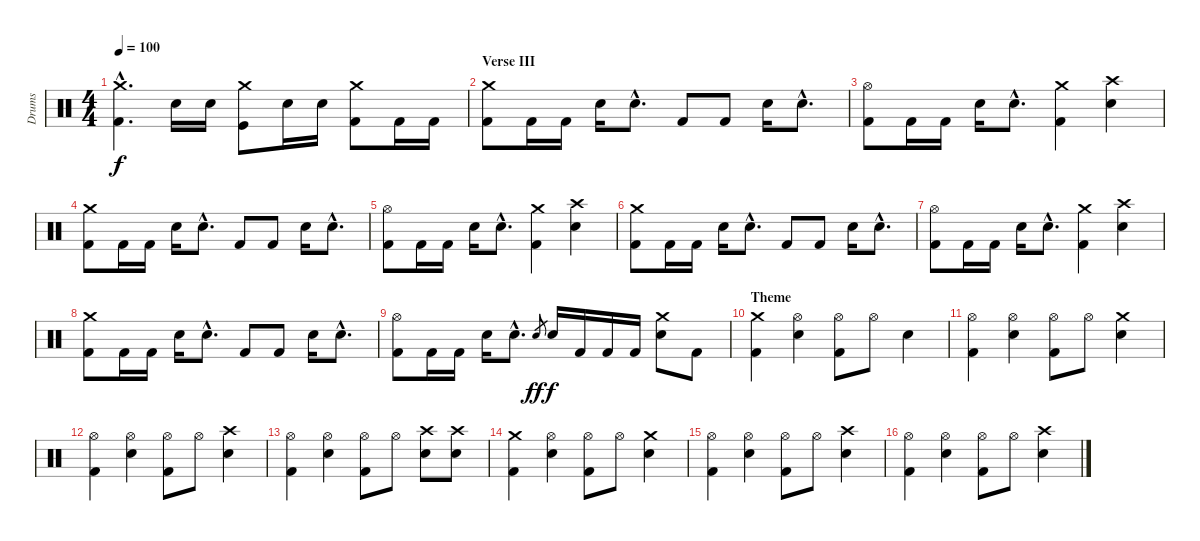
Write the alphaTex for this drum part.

\track ("Drums" "Drums") {instrument percussion}
\staff {score}
\articulation defaults
\ts (4 4)
\tempo 100
\clef neutral
\ks c
("Crash medium (hit)"{hac} "Kick (hit) 2"{hac}).4{d dy f} "Snare (hit) 2".16 "Snare (hit) 2".16 ("Crash medium (hit)" "Kick (hit)").8 "Snare (hit) 2".16 "Snare (hit) 2".16 ("Crash medium (hit)" "Kick (hit) 2").8 "Kick (hit) 2".16 "Kick (hit) 2".16 |
\section ("" "Verse III")
("Crash medium (hit)" "Kick (hit) 2").8 "Kick (hit) 2".16 "Kick (hit) 2".16 "Snare (hit) 2".16 "Snare (hit) 2"{hac}.8{d} "Kick (hit) 2".8 "Kick (hit) 2".8 "Snare (hit) 2".16 "Snare (hit) 2"{hac}.8{d} |
("Hi-Hat (open)" "Kick (hit) 2").8 "Kick (hit) 2".16 "Kick (hit) 2".16 "Snare (hit) 2".16 "Snare (hit) 2"{hac}.8{d} ("Crash medium (hit)" "Kick (hit) 2").4 ("Crash high (hit)" "Snare (hit) 2").4 |
("Crash medium (hit)" "Kick (hit) 2").8 "Kick (hit) 2".16 "Kick (hit) 2".16 "Snare (hit) 2".16 "Snare (hit) 2"{hac}.8{d} "Kick (hit) 2".8 "Kick (hit) 2".8 "Snare (hit) 2".16 "Snare (hit) 2"{hac}.8{d} |
("Hi-Hat (open)" "Kick (hit) 2").8 "Kick (hit) 2".16 "Kick (hit) 2".16 "Snare (hit) 2".16 "Snare (hit) 2"{hac}.8{d} ("Crash medium (hit)" "Kick (hit) 2").4 ("Crash high (hit)" "Snare (hit) 2").4 |
("Crash medium (hit)" "Kick (hit) 2").8 "Kick (hit) 2".16 "Kick (hit) 2".16 "Snare (hit) 2".16 "Snare (hit) 2"{hac}.8{d} "Kick (hit) 2".8 "Kick (hit) 2".8 "Snare (hit) 2".16 "Snare (hit) 2"{hac}.8{d} |
("Hi-Hat (open)" "Kick (hit) 2").8 "Kick (hit) 2".16 "Kick (hit) 2".16 "Snare (hit) 2".16 "Snare (hit) 2"{hac}.8{d} ("Crash medium (hit)" "Kick (hit) 2").4 ("Crash high (hit)" "Snare (hit) 2").4 |
("Crash medium (hit)" "Kick (hit) 2").8 "Kick (hit) 2".16 "Kick (hit) 2".16 "Snare (hit) 2".16 "Snare (hit) 2"{hac}.8{d} "Kick (hit) 2".8 "Kick (hit) 2".8 "Snare (hit) 2".16 "Snare (hit) 2"{hac}.8{d} |
("Hi-Hat (open)" "Kick (hit) 2").8 "Kick (hit) 2".16 "Kick (hit) 2".16 "Snare (hit) 2".16 "Snare (hit) 2"{hac}.8{d} "Snare (hit) 2".8{gr dy ff} "Snare (hit) 2".16{dy f} "Kick (hit) 2".16 "Kick (hit) 2".16 "Kick (hit) 2".16 ("Crash medium (hit)" "Snare (hit) 2").8 "Kick (hit) 2".8 |
\section ("" "Theme")
("Crash medium (hit)" "Kick (hit) 2").4 ("Hi-Hat (open)" "Snare (hit) 2").4 ("Hi-Hat (open)" "Kick (hit) 2").8 "Hi-Hat (open)".8 "Snare (hit) 2".4 |
("Hi-Hat (open)" "Kick (hit) 2").4 ("Hi-Hat (open)" "Snare (hit) 2").4 ("Hi-Hat (open)" "Kick (hit) 2").8 "Hi-Hat (open)".8 ("Crash medium (hit)" "Snare (hit) 2").4 |
("Hi-Hat (open)" "Kick (hit) 2").4 ("Hi-Hat (open)" "Snare (hit) 2").4 ("Hi-Hat (open)" "Kick (hit) 2").8 "Hi-Hat (open)".8 ("Crash high (hit)" "Snare (hit) 2").4 |
("Hi-Hat (open)" "Kick (hit) 2").4 ("Hi-Hat (open)" "Snare (hit) 2").4 ("Hi-Hat (open)" "Kick (hit) 2").8 "Hi-Hat (open)".8 ("Crash high (hit)" "Snare (hit) 2").8 ("Crash high (hit)" "Snare (hit) 2").8 |
("Crash medium (hit)" "Kick (hit) 2").4 ("Hi-Hat (open)" "Snare (hit) 2").4 ("Hi-Hat (open)" "Kick (hit) 2").8 "Hi-Hat (open)".8 ("Crash medium (hit)" "Snare (hit) 2").4 |
("Hi-Hat (open)" "Kick (hit) 2").4 ("Hi-Hat (open)" "Snare (hit) 2").4 ("Hi-Hat (open)" "Kick (hit) 2").8 "Hi-Hat (open)".8 ("Crash high (hit)" "Snare (hit) 2").4 |
("Hi-Hat (open)" "Kick (hit) 2").4 ("Hi-Hat (open)" "Snare (hit) 2").4 ("Hi-Hat (open)" "Kick (hit) 2").8 "Hi-Hat (open)".8 ("Crash high (hit)" "Snare (hit) 2").4
